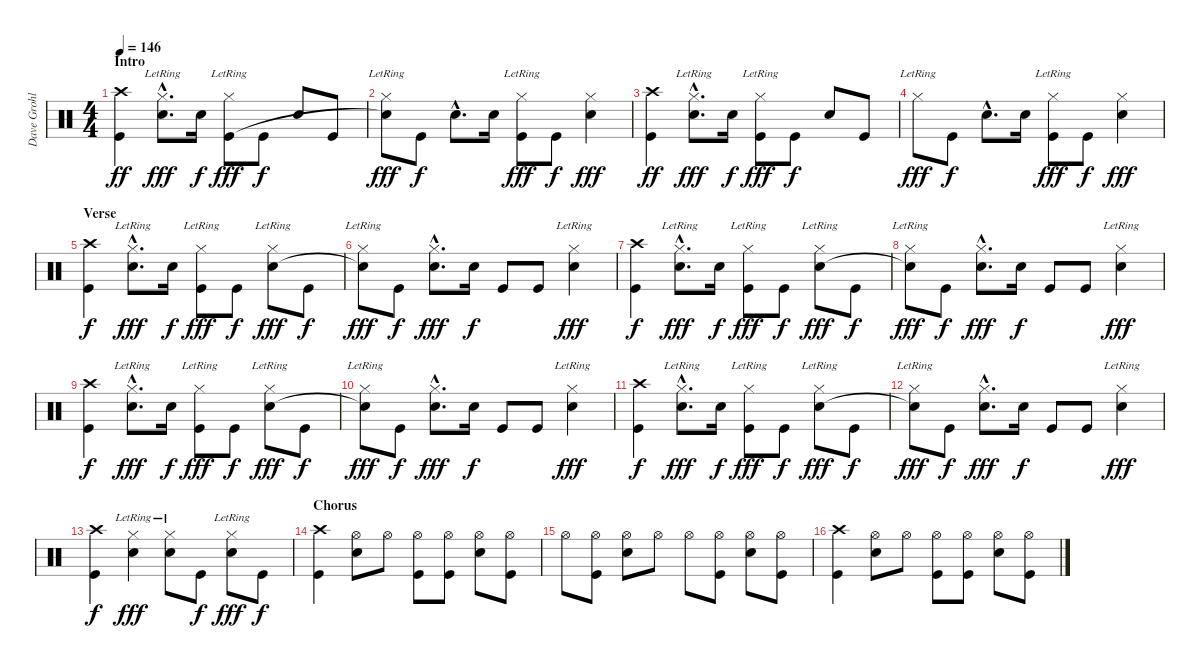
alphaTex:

\track ("Dave Grohl - Drums" "Dave Grohl") {instrument percussion}
\staff {score}
\articulation defaults
\ts (4 4)
\section ("" "Intro")
\tempo 146
\clef neutral
\ks c
("Crash high (hit)" "Kick (hit)").4{dy ff} ("Hi-Hat (closed)"{hac lr} "Electric Snare (hit)"{hac}).8{d dy fff} "Electric Snare (hit)".16{dy f} ("Hi-Hat (closed)"{lr} "Kick (hit)").8{dy fff} "Kick (hit)".8{dy f} "Electric Snare (hit)".8 "Kick (hit)".8 |
("Hi-Hat (closed)"{lr} "Snare (hit)"{t}).8{dy fff} "Kick (hit)".8{dy f} "Electric Snare (hit)"{hac}.8{d} "Electric Snare (hit)".16 ("Hi-Hat (closed)"{lr} "Kick (hit)").8{dy fff} "Kick (hit)".8{dy f} ("Hi-Hat (closed)" "Electric Snare (hit)").4{dy fff} |
("Crash high (hit)" "Kick (hit)").4{dy ff} ("Hi-Hat (closed)"{hac lr} "Electric Snare (hit)"{hac}).8{d dy fff} "Electric Snare (hit)".16{dy f} ("Hi-Hat (closed)"{lr} "Kick (hit)").8{dy fff} "Kick (hit)".8{dy f} "Electric Snare (hit)".8 "Kick (hit)".8 |
"Hi-Hat (closed)"{lr}.8{dy fff} "Kick (hit)".8{dy f} "Electric Snare (hit)"{hac}.8{d} "Electric Snare (hit)".16 ("Hi-Hat (closed)"{lr} "Kick (hit)").8{dy fff} "Kick (hit)".8{dy f} ("Hi-Hat (closed)" "Electric Snare (hit)").4{dy fff} |
\section ("" "Verse")
("Crash high (hit)" "Kick (hit)").4{dy f} ("Hi-Hat (closed)"{hac lr} "Electric Snare (hit)"{hac}).8{d dy fff} "Electric Snare (hit)".16{dy f} ("Hi-Hat (closed)"{lr} "Kick (hit)").8{dy fff} "Kick (hit)".8{dy f} ("Hi-Hat (closed)"{lr} "Electric Snare (hit)").8{dy fff} "Kick (hit)".8{dy f} |
("Hi-Hat (closed)"{lr} "Snare (hit)"{t}).8{dy fff} "Kick (hit)".8{dy f} ("Hi-Hat (closed)"{hac} "Electric Snare (hit)"{hac}).8{d dy fff} "Electric Snare (hit)".16{dy f} "Kick (hit)".8 "Kick (hit)".8 ("Hi-Hat (closed)"{lr} "Electric Snare (hit)").4{dy fff} |
("Crash high (hit)" "Kick (hit)").4{dy f} ("Hi-Hat (closed)"{hac lr} "Electric Snare (hit)"{hac}).8{d dy fff} "Electric Snare (hit)".16{dy f} ("Hi-Hat (closed)"{lr} "Kick (hit)").8{dy fff} "Kick (hit)".8{dy f} ("Hi-Hat (closed)"{lr} "Electric Snare (hit)").8{dy fff} "Kick (hit)".8{dy f} |
("Hi-Hat (closed)"{lr} "Snare (hit)"{t}).8{dy fff} "Kick (hit)".8{dy f} ("Hi-Hat (closed)"{hac} "Electric Snare (hit)"{hac}).8{d dy fff} "Electric Snare (hit)".16{dy f} "Kick (hit)".8 "Kick (hit)".8 ("Hi-Hat (closed)"{lr} "Electric Snare (hit)").4{dy fff} |
("Crash high (hit)" "Kick (hit)").4{dy f} ("Hi-Hat (closed)"{hac lr} "Electric Snare (hit)"{hac}).8{d dy fff} "Electric Snare (hit)".16{dy f} ("Hi-Hat (closed)"{lr} "Kick (hit)").8{dy fff} "Kick (hit)".8{dy f} ("Hi-Hat (closed)"{lr} "Electric Snare (hit)").8{dy fff} "Kick (hit)".8{dy f} |
("Hi-Hat (closed)"{lr} "Snare (hit)"{t}).8{dy fff} "Kick (hit)".8{dy f} ("Hi-Hat (closed)"{hac} "Electric Snare (hit)"{hac}).8{d dy fff} "Electric Snare (hit)".16{dy f} "Kick (hit)".8 "Kick (hit)".8 ("Hi-Hat (closed)"{lr} "Electric Snare (hit)").4{dy fff} |
("Crash high (hit)" "Kick (hit)").4{dy f} ("Hi-Hat (closed)"{hac lr} "Electric Snare (hit)"{hac}).8{d dy fff} "Electric Snare (hit)".16{dy f} ("Hi-Hat (closed)"{lr} "Kick (hit)").8{dy fff} "Kick (hit)".8{dy f} ("Hi-Hat (closed)"{lr} "Electric Snare (hit)").8{dy fff} "Kick (hit)".8{dy f} |
("Hi-Hat (closed)"{lr} "Snare (hit)"{t}).8{dy fff} "Kick (hit)".8{dy f} ("Hi-Hat (closed)"{hac} "Electric Snare (hit)"{hac}).8{d dy fff} "Electric Snare (hit)".16{dy f} "Kick (hit)".8 "Kick (hit)".8 ("Hi-Hat (closed)"{lr} "Electric Snare (hit)").4{dy fff} |
("Crash high (hit)" "Kick (hit)").4{dy f} ("Hi-Hat (closed)"{lr} "Electric Snare (hit)").4{dy fff} ("Hi-Hat (closed)"{lr} "Electric Snare (hit)").8 "Kick (hit)".8{dy f} ("Hi-Hat (closed)"{lr} "Electric Snare (hit)").8{dy fff} "Kick (hit)".8{dy f} |
\section ("" "Chorus")
("Crash high (hit)" "Kick (hit)").4 ("Hi-Hat (open)" "Electric Snare (hit)").8 "Hi-Hat (open)".8 ("Hi-Hat (open)" "Kick (hit)").8 ("Hi-Hat (open)" "Kick (hit)").8 ("Hi-Hat (open)" "Electric Snare (hit)").8 ("Hi-Hat (open)" "Kick (hit)").8 |
"Hi-Hat (open)".8 ("Hi-Hat (open)" "Kick (hit)").8 ("Hi-Hat (open)" "Electric Snare (hit)").8 "Hi-Hat (open)".8 "Hi-Hat (open)".8 ("Hi-Hat (open)" "Kick (hit)").8 ("Hi-Hat (open)" "Electric Snare (hit)").8 ("Hi-Hat (open)" "Kick (hit)").8 |
("Crash high (hit)" "Kick (hit)").4 ("Hi-Hat (open)" "Electric Snare (hit)").8 "Hi-Hat (open)".8 ("Hi-Hat (open)" "Kick (hit)").8 ("Hi-Hat (open)" "Kick (hit)").8 ("Hi-Hat (open)" "Electric Snare (hit)").8 ("Hi-Hat (open)" "Kick (hit)").8
